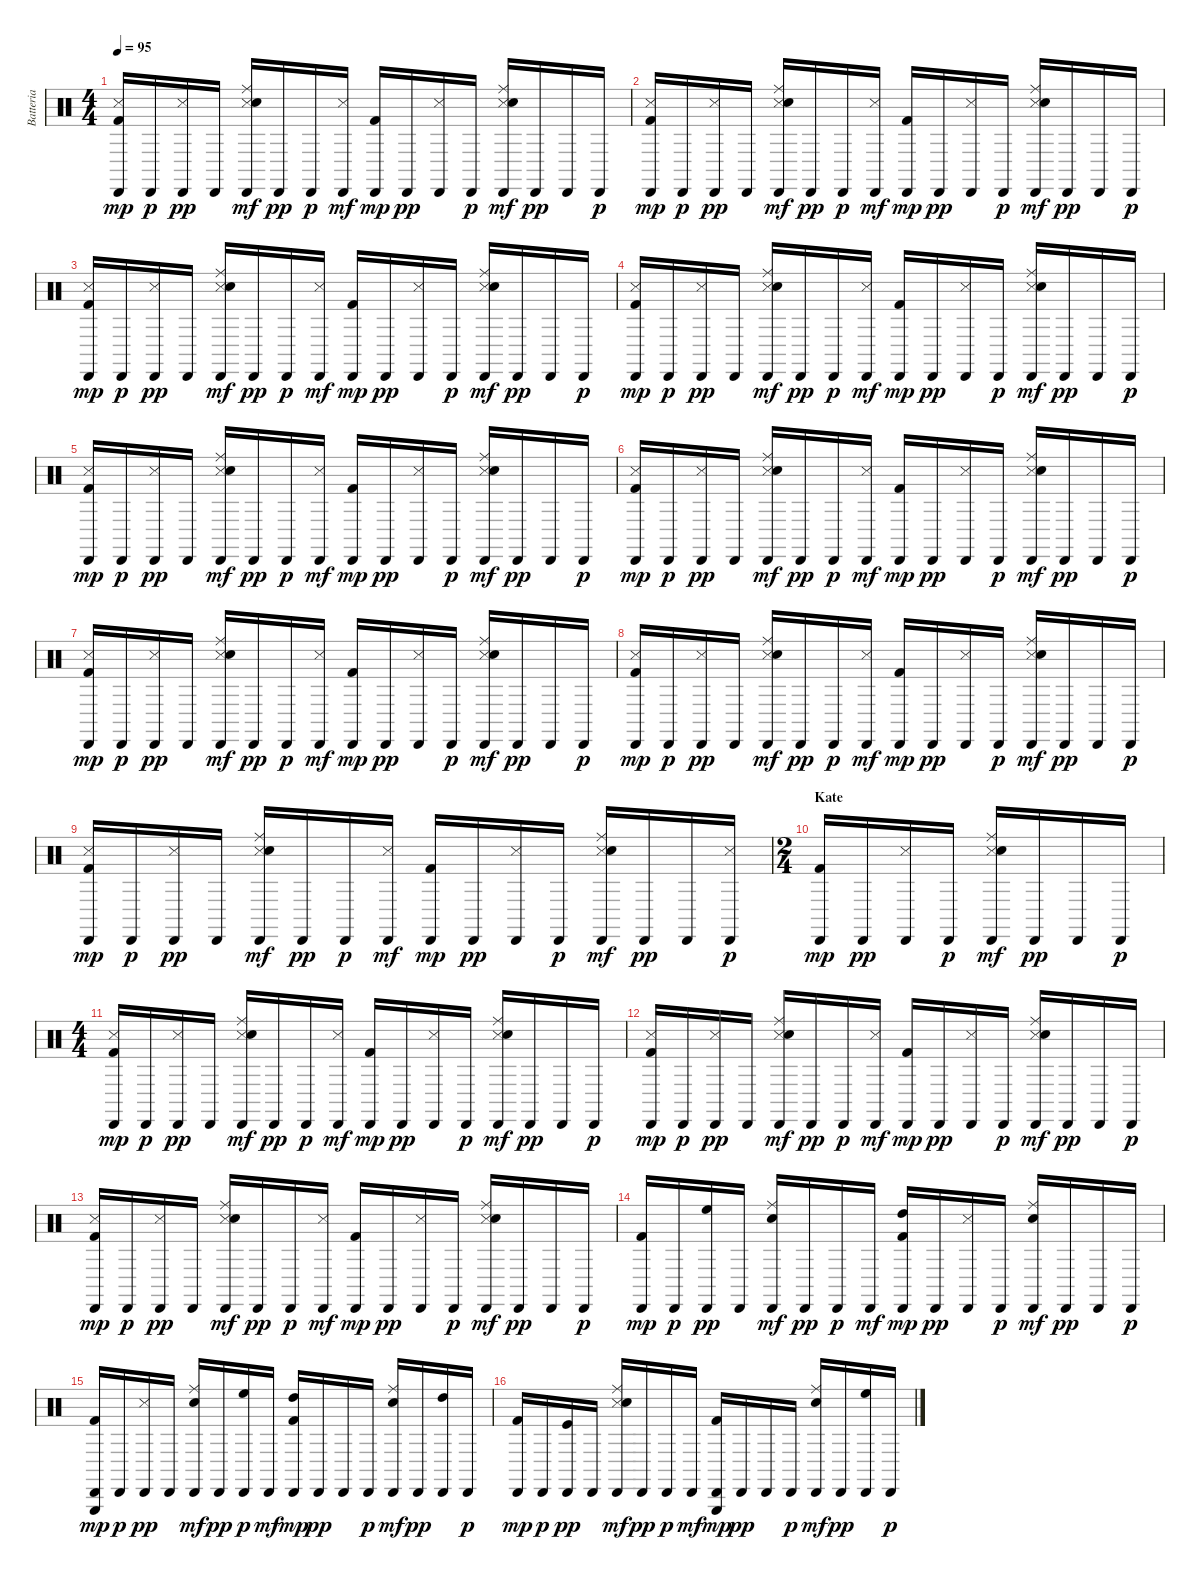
\track ("Batteria" "Batteria") {instrument percussion}
\staff {score}
\articulation defaults
\ts (4 4)
\tempo 95
\clef neutral
\ks c
("Metronome (hit)" "Cabasa (hit)" "Kick (hit) 2").16{dy mp} "Cabasa (hit)".16{dy p} ("Metronome (hit)" "Cabasa (hit)").16{dy pp} "Cabasa (hit)".16 ("Snare (side stick) 3" "Cabasa (hit)" "Snare (hit) 2" "Ride (middle)").16{dy mf} "Cabasa (hit)".16{dy pp} "Cabasa (hit)".16{dy p} ("Metronome (hit)" "Cabasa (hit)").16{dy mf} ("Cabasa (hit)" "Kick (hit) 2").16{dy mp} "Cabasa (hit)".16{dy pp} ("Metronome (hit)" "Cabasa (hit)").16 "Cabasa (hit)".16{dy p} ("Snare (side stick) 3" "Cabasa (hit)" "Snare (hit) 2" "Ride (middle)").16{dy mf} "Cabasa (hit)".16{dy pp} "Cabasa (hit)".16 "Cabasa (hit)".16{dy p} |
("Metronome (hit)" "Cabasa (hit)" "Kick (hit) 2").16{dy mp} "Cabasa (hit)".16{dy p} ("Metronome (hit)" "Cabasa (hit)").16{dy pp} "Cabasa (hit)".16 ("Snare (side stick) 3" "Cabasa (hit)" "Snare (hit) 2" "Ride (middle)").16{dy mf} "Cabasa (hit)".16{dy pp} "Cabasa (hit)".16{dy p} ("Metronome (hit)" "Cabasa (hit)").16{dy mf} ("Cabasa (hit)" "Kick (hit) 2").16{dy mp} "Cabasa (hit)".16{dy pp} ("Metronome (hit)" "Cabasa (hit)").16 "Cabasa (hit)".16{dy p} ("Snare (side stick) 3" "Cabasa (hit)" "Snare (hit) 2" "Ride (middle)").16{dy mf} "Cabasa (hit)".16{dy pp} "Cabasa (hit)".16 "Cabasa (hit)".16{dy p} |
("Metronome (hit)" "Cabasa (hit)" "Kick (hit) 2").16{dy mp} "Cabasa (hit)".16{dy p} ("Metronome (hit)" "Cabasa (hit)").16{dy pp} "Cabasa (hit)".16 ("Snare (side stick) 3" "Cabasa (hit)" "Snare (hit) 2" "Ride (middle)").16{dy mf} "Cabasa (hit)".16{dy pp} "Cabasa (hit)".16{dy p} ("Metronome (hit)" "Cabasa (hit)").16{dy mf} ("Cabasa (hit)" "Kick (hit) 2").16{dy mp} "Cabasa (hit)".16{dy pp} ("Metronome (hit)" "Cabasa (hit)").16 "Cabasa (hit)".16{dy p} ("Snare (side stick) 3" "Cabasa (hit)" "Snare (hit) 2" "Ride (middle)").16{dy mf} "Cabasa (hit)".16{dy pp} "Cabasa (hit)".16 "Cabasa (hit)".16{dy p} |
("Metronome (hit)" "Cabasa (hit)" "Kick (hit) 2").16{dy mp} "Cabasa (hit)".16{dy p} ("Metronome (hit)" "Cabasa (hit)").16{dy pp} "Cabasa (hit)".16 ("Snare (side stick) 3" "Cabasa (hit)" "Snare (hit) 2" "Ride (middle)").16{dy mf} "Cabasa (hit)".16{dy pp} "Cabasa (hit)".16{dy p} ("Metronome (hit)" "Cabasa (hit)").16{dy mf} ("Cabasa (hit)" "Kick (hit) 2").16{dy mp} "Cabasa (hit)".16{dy pp} ("Metronome (hit)" "Cabasa (hit)").16 "Cabasa (hit)".16{dy p} ("Snare (side stick) 3" "Cabasa (hit)" "Snare (hit) 2" "Ride (middle)").16{dy mf} "Cabasa (hit)".16{dy pp} "Cabasa (hit)".16 "Cabasa (hit)".16{dy p} |
("Metronome (hit)" "Cabasa (hit)" "Kick (hit) 2").16{dy mp} "Cabasa (hit)".16{dy p} ("Metronome (hit)" "Cabasa (hit)").16{dy pp} "Cabasa (hit)".16 ("Snare (side stick) 3" "Cabasa (hit)" "Snare (hit) 2" "Ride (middle)").16{dy mf} "Cabasa (hit)".16{dy pp} "Cabasa (hit)".16{dy p} ("Metronome (hit)" "Cabasa (hit)").16{dy mf} ("Cabasa (hit)" "Kick (hit) 2").16{dy mp} "Cabasa (hit)".16{dy pp} ("Metronome (hit)" "Cabasa (hit)").16 "Cabasa (hit)".16{dy p} ("Snare (side stick) 3" "Cabasa (hit)" "Snare (hit) 2" "Ride (middle)").16{dy mf} "Cabasa (hit)".16{dy pp} "Cabasa (hit)".16 "Cabasa (hit)".16{dy p} |
("Metronome (hit)" "Cabasa (hit)" "Kick (hit) 2").16{dy mp} "Cabasa (hit)".16{dy p} ("Metronome (hit)" "Cabasa (hit)").16{dy pp} "Cabasa (hit)".16 ("Snare (side stick) 3" "Cabasa (hit)" "Snare (hit) 2" "Ride (middle)").16{dy mf} "Cabasa (hit)".16{dy pp} "Cabasa (hit)".16{dy p} ("Metronome (hit)" "Cabasa (hit)").16{dy mf} ("Cabasa (hit)" "Kick (hit) 2").16{dy mp} "Cabasa (hit)".16{dy pp} ("Metronome (hit)" "Cabasa (hit)").16 "Cabasa (hit)".16{dy p} ("Snare (side stick) 3" "Cabasa (hit)" "Snare (hit) 2" "Ride (middle)").16{dy mf} "Cabasa (hit)".16{dy pp} "Cabasa (hit)".16 "Cabasa (hit)".16{dy p} |
("Metronome (hit)" "Cabasa (hit)" "Kick (hit) 2").16{dy mp} "Cabasa (hit)".16{dy p} ("Metronome (hit)" "Cabasa (hit)").16{dy pp} "Cabasa (hit)".16 ("Snare (side stick) 3" "Cabasa (hit)" "Snare (hit) 2" "Ride (middle)").16{dy mf} "Cabasa (hit)".16{dy pp} "Cabasa (hit)".16{dy p} ("Metronome (hit)" "Cabasa (hit)").16{dy mf} ("Cabasa (hit)" "Kick (hit) 2").16{dy mp} "Cabasa (hit)".16{dy pp} ("Metronome (hit)" "Cabasa (hit)").16 "Cabasa (hit)".16{dy p} ("Snare (side stick) 3" "Cabasa (hit)" "Snare (hit) 2" "Ride (middle)").16{dy mf} "Cabasa (hit)".16{dy pp} "Cabasa (hit)".16 "Cabasa (hit)".16{dy p} |
("Metronome (hit)" "Cabasa (hit)" "Kick (hit) 2").16{dy mp} "Cabasa (hit)".16{dy p} ("Metronome (hit)" "Cabasa (hit)").16{dy pp} "Cabasa (hit)".16 ("Snare (side stick) 3" "Cabasa (hit)" "Snare (hit) 2" "Ride (middle)").16{dy mf} "Cabasa (hit)".16{dy pp} "Cabasa (hit)".16{dy p} ("Metronome (hit)" "Cabasa (hit)").16{dy mf} ("Cabasa (hit)" "Kick (hit) 2").16{dy mp} "Cabasa (hit)".16{dy pp} ("Metronome (hit)" "Cabasa (hit)").16 "Cabasa (hit)".16{dy p} ("Snare (side stick) 3" "Cabasa (hit)" "Snare (hit) 2" "Ride (middle)").16{dy mf} "Cabasa (hit)".16{dy pp} "Cabasa (hit)".16 "Cabasa (hit)".16{dy p} |
("Metronome (hit)" "Cabasa (hit)" "Kick (hit) 2").16{dy mp} "Cabasa (hit)".16{dy p} ("Metronome (hit)" "Cabasa (hit)").16{dy pp} "Cabasa (hit)".16 ("Snare (side stick) 3" "Cabasa (hit)" "Snare (hit) 2" "Ride (middle)").16{dy mf} "Cabasa (hit)".16{dy pp} "Cabasa (hit)".16{dy p} ("Metronome (hit)" "Cabasa (hit)").16{dy mf} ("Cabasa (hit)" "Kick (hit) 2").16{dy mp} "Cabasa (hit)".16{dy pp} ("Metronome (hit)" "Cabasa (hit)").16 "Cabasa (hit)".16{dy p} ("Snare (side stick) 3" "Cabasa (hit)" "Snare (hit) 2" "Ride (middle)").16{dy mf} "Cabasa (hit)".16{dy pp} "Cabasa (hit)".16 ("Metronome (hit)" "Cabasa (hit)").16{dy p} |
\ts (2 4)
\section ("" "Kate")
("Cabasa (hit)" "Kick (hit) 2").16{dy mp} "Cabasa (hit)".16{dy pp} ("Metronome (hit)" "Cabasa (hit)").16 "Cabasa (hit)".16{dy p} ("Snare (side stick) 3" "Cabasa (hit)" "Snare (hit) 2" "Ride (middle)").16{dy mf} "Cabasa (hit)".16{dy pp} "Cabasa (hit)".16 "Cabasa (hit)".16{dy p} |
\ts (4 4)
("Metronome (hit)" "Cabasa (hit)" "Kick (hit) 2").16{dy mp} "Cabasa (hit)".16{dy p} ("Metronome (hit)" "Cabasa (hit)").16{dy pp} "Cabasa (hit)".16 ("Snare (side stick) 3" "Cabasa (hit)" "Snare (hit) 2" "Ride (middle)").16{dy mf} "Cabasa (hit)".16{dy pp} "Cabasa (hit)".16{dy p} ("Metronome (hit)" "Cabasa (hit)").16{dy mf} ("Cabasa (hit)" "Kick (hit) 2").16{dy mp} "Cabasa (hit)".16{dy pp} ("Metronome (hit)" "Cabasa (hit)").16 "Cabasa (hit)".16{dy p} ("Snare (side stick) 3" "Cabasa (hit)" "Snare (hit) 2" "Ride (middle)").16{dy mf} "Cabasa (hit)".16{dy pp} "Cabasa (hit)".16 "Cabasa (hit)".16{dy p} |
("Metronome (hit)" "Cabasa (hit)" "Kick (hit) 2").16{dy mp} "Cabasa (hit)".16{dy p} ("Metronome (hit)" "Cabasa (hit)").16{dy pp} "Cabasa (hit)".16 ("Snare (side stick) 3" "Cabasa (hit)" "Snare (hit) 2" "Ride (middle)").16{dy mf} "Cabasa (hit)".16{dy pp} "Cabasa (hit)".16{dy p} ("Metronome (hit)" "Cabasa (hit)").16{dy mf} ("Cabasa (hit)" "Kick (hit) 2").16{dy mp} "Cabasa (hit)".16{dy pp} ("Metronome (hit)" "Cabasa (hit)").16 "Cabasa (hit)".16{dy p} ("Snare (side stick) 3" "Cabasa (hit)" "Snare (hit) 2" "Ride (middle)").16{dy mf} "Cabasa (hit)".16{dy pp} "Cabasa (hit)".16 "Cabasa (hit)".16{dy p} |
("Metronome (hit)" "Cabasa (hit)" "Kick (hit) 2").16{dy mp} "Cabasa (hit)".16{dy p} ("Metronome (hit)" "Cabasa (hit)").16{dy pp} "Cabasa (hit)".16 ("Snare (side stick) 3" "Cabasa (hit)" "Snare (hit) 2" "Ride (middle)").16{dy mf} "Cabasa (hit)".16{dy pp} "Cabasa (hit)".16{dy p} ("Metronome (hit)" "Cabasa (hit)").16{dy mf} ("Cabasa (hit)" "Kick (hit) 2").16{dy mp} "Cabasa (hit)".16{dy pp} ("Metronome (hit)" "Cabasa (hit)").16 "Cabasa (hit)".16{dy p} ("Snare (side stick) 3" "Cabasa (hit)" "Snare (hit) 2" "Ride (middle)").16{dy mf} "Cabasa (hit)".16{dy pp} "Cabasa (hit)".16 "Cabasa (hit)".16{dy p} |
("Cabasa (hit)" "Kick (hit) 2").16{dy mp} "Cabasa (hit)".16{dy p} ("High Floor Tom (hit)" "Cabasa (hit)").16{dy pp} "Cabasa (hit)".16 ("Cabasa (hit)" "Snare (hit) 2" "Ride (middle)").16{dy mf} "Cabasa (hit)".16{dy pp} "Cabasa (hit)".16{dy p} "Cabasa (hit)".16{dy mf} ("High Tom (hit)" "Cabasa (hit)" "Kick (hit) 2").16{dy mp} "Cabasa (hit)".16{dy pp} ("Metronome (hit)" "Cabasa (hit)").16 "Cabasa (hit)".16{dy p} ("Cabasa (hit)" "Snare (hit) 2" "Ride (middle)").16{dy mf} "Cabasa (hit)".16{dy pp} "Cabasa (hit)".16 "Cabasa (hit)".16{dy p} |
("Triangle (hit)" "Cabasa (hit)" "Kick (hit) 2").16{dy mp} "Cabasa (hit)".16{dy p} ("Snare (side stick) 3" "Cabasa (hit)").16{dy pp} "Cabasa (hit)".16 ("Cabasa (hit)" "Snare (hit) 2" "Ride (middle)").16{dy mf} "Cabasa (hit)".16{dy pp} ("High Floor Tom (hit)" "Cabasa (hit)").16{dy p} "Cabasa (hit)".16{dy mf} ("High Tom (hit)" "Cabasa (hit)" "Kick (hit) 2").16{dy mp} "Cabasa (hit)".16{dy pp} "Cabasa (hit)".16 "Cabasa (hit)".16{dy p} ("Cabasa (hit)" "Snare (hit) 2" "Ride (middle)").16{dy mf} "Cabasa (hit)".16{dy pp} ("High Tom (hit)" "Cabasa (hit)").16 "Cabasa (hit)".16{dy p} |
("Cabasa (hit)" "Kick (hit) 2").16{dy mp} "Cabasa (hit)".16{dy p} ("Cabasa (hit)" "Kick (hit)").16{dy pp} "Cabasa (hit)".16 ("Metronome (hit)" "Cabasa (hit)" "Snare (hit) 2" "Ride (middle)").16{dy mf} "Cabasa (hit)".16{dy pp} "Cabasa (hit)".16{dy p} "Cabasa (hit)".16{dy mf} ("Triangle (hit)" "Cabasa (hit)" "Kick (hit) 2").16{dy mp} "Cabasa (hit)".16{dy pp} "Cabasa (hit)".16 "Cabasa (hit)".16{dy p} ("Cabasa (hit)" "Snare (hit) 2" "Ride (middle)").16{dy mf} "Cabasa (hit)".16{dy pp} ("High Floor Tom (hit)" "Cabasa (hit)").16 "Cabasa (hit)".16{dy p}
